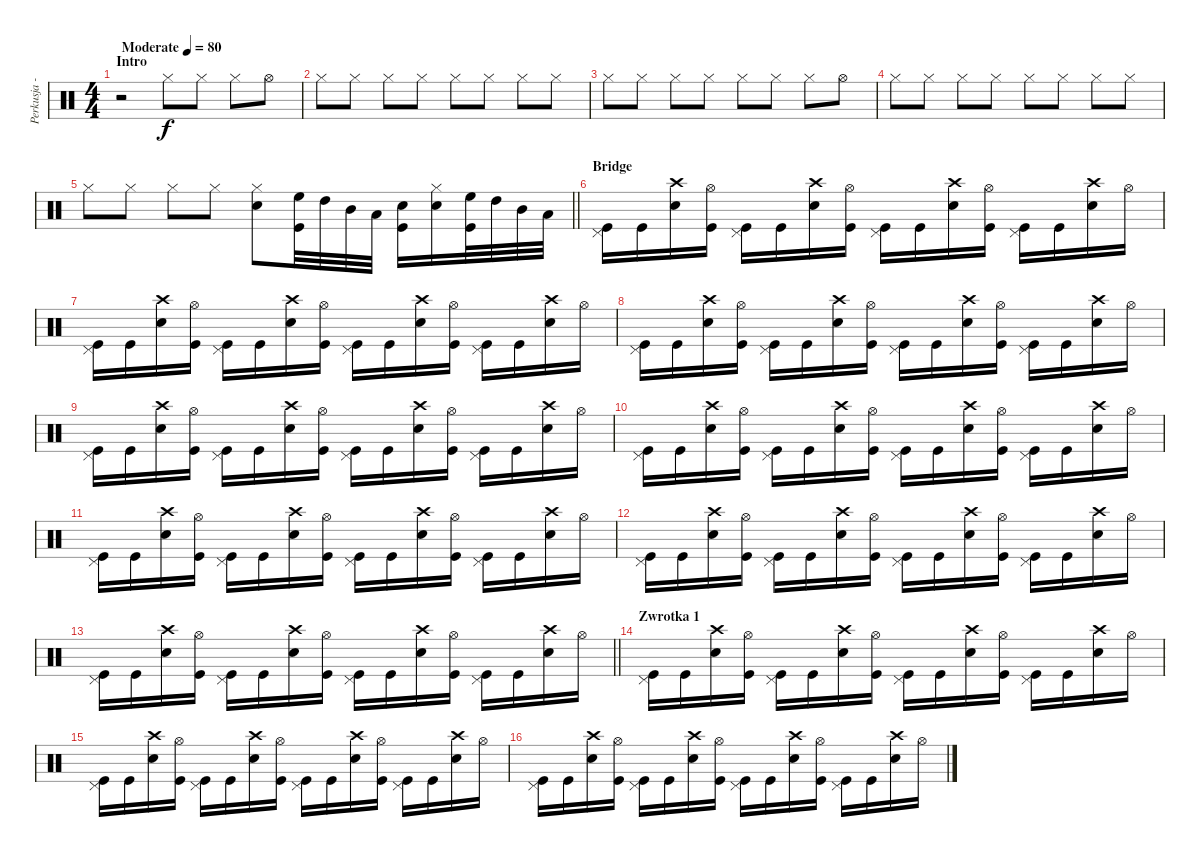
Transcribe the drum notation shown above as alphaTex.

\track ("Perkusja - Krzyzyk" "Perkusja -") {instrument percussion}
\staff {score}
\articulation defaults
\ts (4 4)
\section ("" "Intro")
\tempo (80 "Moderate")
\clef neutral
\ks c
r.2{dy f} "Hi-Hat (closed)".8 "Hi-Hat (closed)".8 "Hi-Hat (closed)".8 "Hi-Hat (open)".8 |
"Hi-Hat (closed)".8 "Hi-Hat (closed)".8 "Hi-Hat (closed)".8 "Hi-Hat (closed)".8 "Hi-Hat (closed)".8 "Hi-Hat (closed)".8 "Hi-Hat (closed)".8 "Hi-Hat (closed)".8 |
"Hi-Hat (closed)".8 "Hi-Hat (closed)".8 "Hi-Hat (closed)".8 "Hi-Hat (closed)".8 "Hi-Hat (closed)".8 "Hi-Hat (closed)".8 "Hi-Hat (closed)".8 "Hi-Hat (open)".8 |
"Hi-Hat (closed)".8 "Hi-Hat (closed)".8 "Hi-Hat (closed)".8 "Hi-Hat (closed)".8 "Hi-Hat (closed)".8 "Hi-Hat (closed)".8 "Hi-Hat (closed)".8 "Hi-Hat (closed)".8 |
\barLineRight lightlight "Hi-Hat (closed)".8 "Hi-Hat (closed)".8 "Hi-Hat (closed)".8 "Hi-Hat (closed)".8
("Hi-Hat (closed)" "Snare (hit) 2").8 ("High Floor Tom (hit)" "Kick (hit)").32 "High Tom (hit)".32 "Mid Tom (hit)".32 "Low Tom (hit)".32 ("Snare (hit) 2" "Kick (hit)").16 ("Hi-Hat (closed)" "Snare (hit) 2").16 ("High Floor Tom (hit)" "Kick (hit)").32 "High Tom (hit)".32 "Mid Tom (hit)".32 "Low Tom (hit)".32 |
\section ("" "Bridge")
("Pedal Hi-Hat (hit)" "Kick (hit)").16 "Kick (hit)".16 ("Crash high (hit)" "Snare (hit) 2").16 ("Hi-Hat (open)" "Kick (hit)").16 ("Pedal Hi-Hat (hit)" "Kick (hit)").16 "Kick (hit)".16 ("Crash high (hit)" "Snare (hit) 2").16 ("Hi-Hat (open)" "Kick (hit)").16 ("Pedal Hi-Hat (hit)" "Kick (hit)").16 "Kick (hit)".16 ("Crash high (hit)" "Snare (hit) 2").16 ("Hi-Hat (open)" "Kick (hit)").16 ("Pedal Hi-Hat (hit)" "Kick (hit)").16 "Kick (hit)".16 ("Crash high (hit)" "Snare (hit) 2").16 "Hi-Hat (open)".16 |
("Pedal Hi-Hat (hit)" "Kick (hit)").16 "Kick (hit)".16 ("Crash high (hit)" "Snare (hit) 2").16 ("Hi-Hat (open)" "Kick (hit)").16 ("Pedal Hi-Hat (hit)" "Kick (hit)").16 "Kick (hit)".16 ("Crash high (hit)" "Snare (hit) 2").16 ("Hi-Hat (open)" "Kick (hit)").16 ("Pedal Hi-Hat (hit)" "Kick (hit)").16 "Kick (hit)".16 ("Crash high (hit)" "Snare (hit) 2").16 ("Hi-Hat (open)" "Kick (hit)").16 ("Pedal Hi-Hat (hit)" "Kick (hit)").16 "Kick (hit)".16 ("Crash high (hit)" "Snare (hit) 2").16 "Hi-Hat (open)".16 |
("Pedal Hi-Hat (hit)" "Kick (hit)").16 "Kick (hit)".16 ("Crash high (hit)" "Snare (hit) 2").16 ("Hi-Hat (open)" "Kick (hit)").16 ("Pedal Hi-Hat (hit)" "Kick (hit)").16 "Kick (hit)".16 ("Crash high (hit)" "Snare (hit) 2").16 ("Hi-Hat (open)" "Kick (hit)").16 ("Pedal Hi-Hat (hit)" "Kick (hit)").16 "Kick (hit)".16 ("Crash high (hit)" "Snare (hit) 2").16 ("Hi-Hat (open)" "Kick (hit)").16 ("Pedal Hi-Hat (hit)" "Kick (hit)").16 "Kick (hit)".16 ("Crash high (hit)" "Snare (hit) 2").16 "Hi-Hat (open)".16 |
("Pedal Hi-Hat (hit)" "Kick (hit)").16 "Kick (hit)".16 ("Crash high (hit)" "Snare (hit) 2").16 ("Hi-Hat (open)" "Kick (hit)").16 ("Pedal Hi-Hat (hit)" "Kick (hit)").16 "Kick (hit)".16 ("Crash high (hit)" "Snare (hit) 2").16 ("Hi-Hat (open)" "Kick (hit)").16 ("Pedal Hi-Hat (hit)" "Kick (hit)").16 "Kick (hit)".16 ("Crash high (hit)" "Snare (hit) 2").16 ("Hi-Hat (open)" "Kick (hit)").16 ("Pedal Hi-Hat (hit)" "Kick (hit)").16 "Kick (hit)".16 ("Crash high (hit)" "Snare (hit) 2").16 "Hi-Hat (open)".16 |
("Pedal Hi-Hat (hit)" "Kick (hit)").16 "Kick (hit)".16 ("Crash high (hit)" "Snare (hit) 2").16 ("Hi-Hat (open)" "Kick (hit)").16 ("Pedal Hi-Hat (hit)" "Kick (hit)").16 "Kick (hit)".16 ("Crash high (hit)" "Snare (hit) 2").16 ("Hi-Hat (open)" "Kick (hit)").16 ("Pedal Hi-Hat (hit)" "Kick (hit)").16 "Kick (hit)".16 ("Crash high (hit)" "Snare (hit) 2").16 ("Hi-Hat (open)" "Kick (hit)").16 ("Pedal Hi-Hat (hit)" "Kick (hit)").16 "Kick (hit)".16 ("Crash high (hit)" "Snare (hit) 2").16 "Hi-Hat (open)".16 |
("Pedal Hi-Hat (hit)" "Kick (hit)").16 "Kick (hit)".16 ("Crash high (hit)" "Snare (hit) 2").16 ("Hi-Hat (open)" "Kick (hit)").16 ("Pedal Hi-Hat (hit)" "Kick (hit)").16 "Kick (hit)".16 ("Crash high (hit)" "Snare (hit) 2").16 ("Hi-Hat (open)" "Kick (hit)").16 ("Pedal Hi-Hat (hit)" "Kick (hit)").16 "Kick (hit)".16 ("Crash high (hit)" "Snare (hit) 2").16 ("Hi-Hat (open)" "Kick (hit)").16 ("Pedal Hi-Hat (hit)" "Kick (hit)").16 "Kick (hit)".16 ("Crash high (hit)" "Snare (hit) 2").16 "Hi-Hat (open)".16 |
("Pedal Hi-Hat (hit)" "Kick (hit)").16 "Kick (hit)".16 ("Crash high (hit)" "Snare (hit) 2").16 ("Hi-Hat (open)" "Kick (hit)").16 ("Pedal Hi-Hat (hit)" "Kick (hit)").16 "Kick (hit)".16 ("Crash high (hit)" "Snare (hit) 2").16 ("Hi-Hat (open)" "Kick (hit)").16 ("Pedal Hi-Hat (hit)" "Kick (hit)").16 "Kick (hit)".16 ("Crash high (hit)" "Snare (hit) 2").16 ("Hi-Hat (open)" "Kick (hit)").16 ("Pedal Hi-Hat (hit)" "Kick (hit)").16 "Kick (hit)".16 ("Crash high (hit)" "Snare (hit) 2").16 "Hi-Hat (open)".16 |
\barLineRight lightlight
("Pedal Hi-Hat (hit)" "Kick (hit)").16 "Kick (hit)".16 ("Crash high (hit)" "Snare (hit) 2").16 ("Hi-Hat (open)" "Kick (hit)").16 ("Pedal Hi-Hat (hit)" "Kick (hit)").16 "Kick (hit)".16 ("Crash high (hit)" "Snare (hit) 2").16 ("Hi-Hat (open)" "Kick (hit)").16 ("Pedal Hi-Hat (hit)" "Kick (hit)").16 "Kick (hit)".16 ("Crash high (hit)" "Snare (hit) 2").16 ("Hi-Hat (open)" "Kick (hit)").16 ("Pedal Hi-Hat (hit)" "Kick (hit)").16 "Kick (hit)".16 ("Crash high (hit)" "Snare (hit) 2").16 "Hi-Hat (open)".16 |
\section ("" "Zwrotka 1")
("Pedal Hi-Hat (hit)" "Kick (hit)").16 "Kick (hit)".16 ("Crash high (hit)" "Snare (hit) 2").16 ("Hi-Hat (open)" "Kick (hit)").16 ("Pedal Hi-Hat (hit)" "Kick (hit)").16 "Kick (hit)".16 ("Crash high (hit)" "Snare (hit) 2").16 ("Hi-Hat (open)" "Kick (hit)").16 ("Pedal Hi-Hat (hit)" "Kick (hit)").16 "Kick (hit)".16 ("Crash high (hit)" "Snare (hit) 2").16 ("Hi-Hat (open)" "Kick (hit)").16 ("Pedal Hi-Hat (hit)" "Kick (hit)").16 "Kick (hit)".16 ("Crash high (hit)" "Snare (hit) 2").16 "Hi-Hat (open)".16 |
("Pedal Hi-Hat (hit)" "Kick (hit)").16 "Kick (hit)".16 ("Crash high (hit)" "Snare (hit) 2").16 ("Hi-Hat (open)" "Kick (hit)").16 ("Pedal Hi-Hat (hit)" "Kick (hit)").16 "Kick (hit)".16 ("Crash high (hit)" "Snare (hit) 2").16 ("Hi-Hat (open)" "Kick (hit)").16 ("Pedal Hi-Hat (hit)" "Kick (hit)").16 "Kick (hit)".16 ("Crash high (hit)" "Snare (hit) 2").16 ("Hi-Hat (open)" "Kick (hit)").16 ("Pedal Hi-Hat (hit)" "Kick (hit)").16 "Kick (hit)".16 ("Crash high (hit)" "Snare (hit) 2").16 "Hi-Hat (open)".16 |
("Pedal Hi-Hat (hit)" "Kick (hit)").16 "Kick (hit)".16 ("Crash high (hit)" "Snare (hit) 2").16 ("Hi-Hat (open)" "Kick (hit)").16 ("Pedal Hi-Hat (hit)" "Kick (hit)").16 "Kick (hit)".16 ("Crash high (hit)" "Snare (hit) 2").16 ("Hi-Hat (open)" "Kick (hit)").16 ("Pedal Hi-Hat (hit)" "Kick (hit)").16 "Kick (hit)".16 ("Crash high (hit)" "Snare (hit) 2").16 ("Hi-Hat (open)" "Kick (hit)").16 ("Pedal Hi-Hat (hit)" "Kick (hit)").16 "Kick (hit)".16 ("Crash high (hit)" "Snare (hit) 2").16 "Hi-Hat (open)".16
